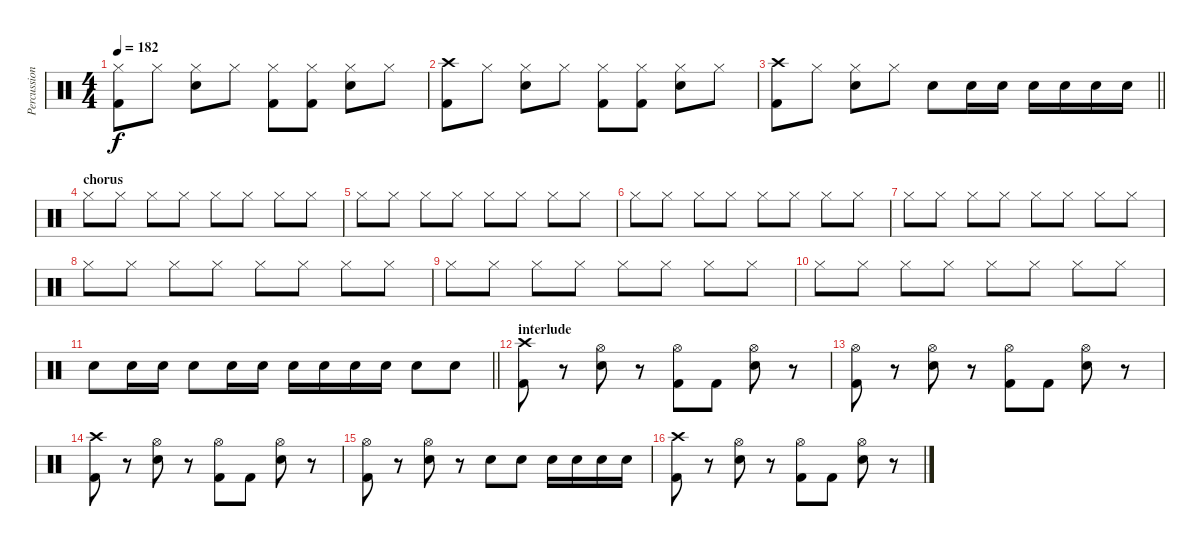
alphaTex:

\track ("Percussion" "Percussion") {instrument percussion}
\staff {score}
\articulation defaults
\ts (4 4)
\tempo 182
\clef neutral
\ks c
("Hi-Hat (closed)" "Kick (hit) 2").8{dy f} "Hi-Hat (closed)".8 ("Hi-Hat (closed)" "Snare (hit) 2").8 "Hi-Hat (closed)".8 ("Hi-Hat (closed)" "Kick (hit) 2").8 ("Hi-Hat (closed)" "Kick (hit) 2").8 ("Hi-Hat (closed)" "Snare (hit) 2").8 "Hi-Hat (closed)".8 |
("Crash high (hit)" "Kick (hit) 2").8 "Hi-Hat (closed)".8 ("Hi-Hat (closed)" "Snare (hit) 2").8 "Hi-Hat (closed)".8 ("Hi-Hat (closed)" "Kick (hit) 2").8 ("Hi-Hat (closed)" "Kick (hit) 2").8 ("Hi-Hat (closed)" "Snare (hit) 2").8 "Hi-Hat (closed)".8 |
\barLineRight lightlight
("Crash high (hit)" "Kick (hit) 2").8 "Hi-Hat (closed)".8 ("Hi-Hat (closed)" "Snare (hit) 2").8 "Hi-Hat (closed)".8 "Snare (hit) 2".8 "Snare (hit) 2".16 "Snare (hit) 2".16 "Snare (hit) 2".16 "Snare (hit) 2".16 "Snare (hit) 2".16 "Snare (hit) 2".16 |
\section ("" "chorus")
"Hi-Hat (closed)".8 "Hi-Hat (closed)".8 "Hi-Hat (closed)".8 "Hi-Hat (closed)".8 "Hi-Hat (closed)".8 "Hi-Hat (closed)".8 "Hi-Hat (closed)".8 "Hi-Hat (closed)".8 |
"Hi-Hat (closed)".8 "Hi-Hat (closed)".8 "Hi-Hat (closed)".8 "Hi-Hat (closed)".8 "Hi-Hat (closed)".8 "Hi-Hat (closed)".8 "Hi-Hat (closed)".8 "Hi-Hat (closed)".8 |
"Hi-Hat (closed)".8 "Hi-Hat (closed)".8 "Hi-Hat (closed)".8 "Hi-Hat (closed)".8 "Hi-Hat (closed)".8 "Hi-Hat (closed)".8 "Hi-Hat (closed)".8 "Hi-Hat (closed)".8 |
"Hi-Hat (closed)".8 "Hi-Hat (closed)".8 "Hi-Hat (closed)".8 "Hi-Hat (closed)".8 "Hi-Hat (closed)".8 "Hi-Hat (closed)".8 "Hi-Hat (closed)".8 "Hi-Hat (closed)".8 |
"Hi-Hat (closed)".8 "Hi-Hat (closed)".8 "Hi-Hat (closed)".8 "Hi-Hat (closed)".8 "Hi-Hat (closed)".8 "Hi-Hat (closed)".8 "Hi-Hat (closed)".8 "Hi-Hat (closed)".8 |
"Hi-Hat (closed)".8 "Hi-Hat (closed)".8 "Hi-Hat (closed)".8 "Hi-Hat (closed)".8 "Hi-Hat (closed)".8 "Hi-Hat (closed)".8 "Hi-Hat (closed)".8 "Hi-Hat (closed)".8 |
"Hi-Hat (closed)".8 "Hi-Hat (closed)".8 "Hi-Hat (closed)".8 "Hi-Hat (closed)".8 "Hi-Hat (closed)".8 "Hi-Hat (closed)".8 "Hi-Hat (closed)".8 "Hi-Hat (closed)".8 |
\barLineRight lightlight "Snare (hit) 2".8 "Snare (hit) 2".16 "Snare (hit) 2".16 "Snare (hit) 2".8 "Snare (hit) 2".16 "Snare (hit) 2".16 "Snare (hit) 2".16 "Snare (hit) 2".16 "Snare (hit) 2".16 "Snare (hit) 2".16 "Snare (hit) 2".8 "Snare (hit) 2".8
|
\section ("" "interlude")
("Crash high (hit)" "Kick (hit) 2").8 r.8 ("Hi-Hat (open)" "Snare (hit) 2").8 r.8 ("Hi-Hat (open)" "Kick (hit) 2").8 "Kick (hit) 2".8 ("Hi-Hat (open)" "Snare (hit) 2").8 r.8 |
("Hi-Hat (open)" "Kick (hit) 2").8 r.8 ("Hi-Hat (open)" "Snare (hit) 2").8 r.8 ("Hi-Hat (open)" "Kick (hit) 2").8 "Kick (hit) 2".8 ("Hi-Hat (open)" "Snare (hit) 2").8 r.8 |
("Crash high (hit)" "Kick (hit) 2").8 r.8 ("Hi-Hat (open)" "Snare (hit) 2").8 r.8 ("Hi-Hat (open)" "Kick (hit) 2").8 "Kick (hit) 2".8 ("Hi-Hat (open)" "Snare (hit) 2").8 r.8 |
("Hi-Hat (open)" "Kick (hit) 2").8 r.8 ("Hi-Hat (open)" "Snare (hit) 2").8 r.8 "Snare (hit) 2".8 "Snare (hit) 2".8 "Snare (hit) 2".16 "Snare (hit) 2".16 "Snare (hit) 2".16 "Snare (hit) 2".16 |
("Crash high (hit)" "Kick (hit) 2").8 r.8 ("Hi-Hat (open)" "Snare (hit) 2").8 r.8 ("Hi-Hat (open)" "Kick (hit) 2").8 "Kick (hit) 2".8 ("Hi-Hat (open)" "Snare (hit) 2").8 r.8
